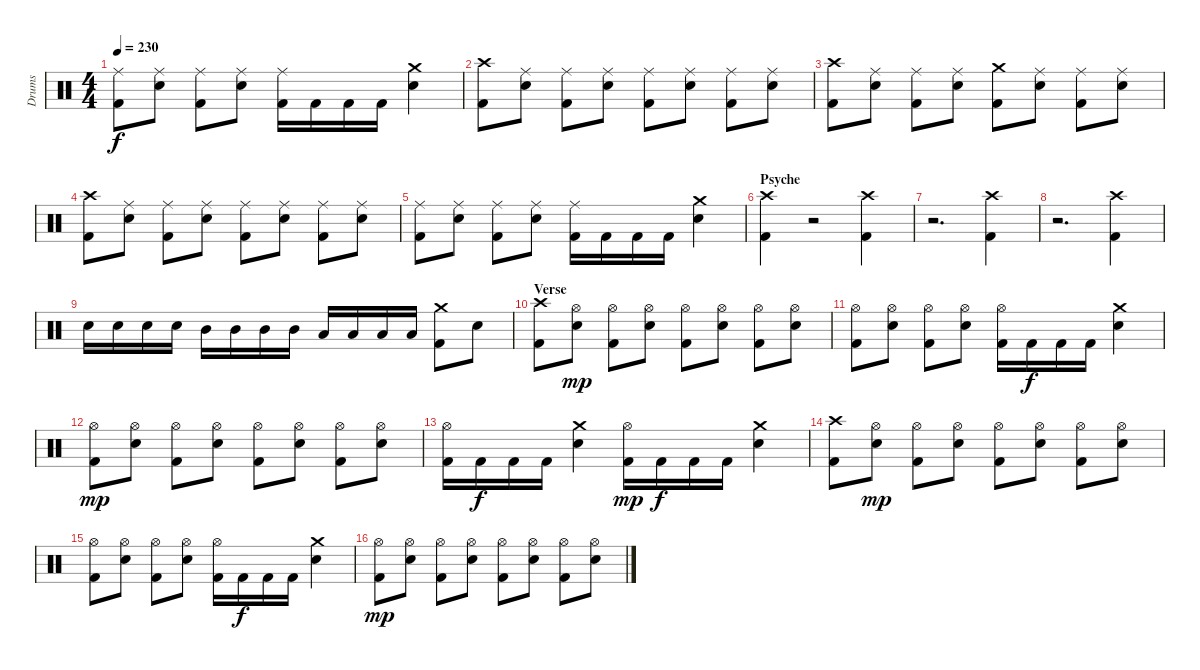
\track ("Drums" "Drums") {instrument percussion}
\staff {score}
\articulation defaults
\ts (4 4)
\tempo 230
\clef neutral
\ks c
("Ride (middle)" "Kick (hit) 2").8{dy f} ("Ride (middle)" "Snare (hit) 2").8 ("Ride (middle)" "Kick (hit) 2").8 ("Ride (middle)" "Snare (hit) 2").8 ("Ride (middle)" "Kick (hit) 2").16 "Kick (hit) 2".16 "Kick (hit) 2".16 "Kick (hit) 2".16 ("Crash medium (hit)" "Snare (hit) 2").4 |
("Crash high (hit)" "Kick (hit) 2").8 ("Ride (middle)" "Snare (hit) 2").8 ("Ride (middle)" "Kick (hit) 2").8 ("Ride (middle)" "Snare (hit) 2").8 ("Ride (middle)" "Kick (hit) 2").8 ("Ride (middle)" "Snare (hit) 2").8 ("Ride (middle)" "Kick (hit) 2").8 ("Ride (middle)" "Snare (hit) 2").8 |
("Crash high (hit)" "Kick (hit) 2").8 ("Ride (middle)" "Snare (hit) 2").8 ("Ride (middle)" "Kick (hit) 2").8 ("Ride (middle)" "Snare (hit) 2").8 ("Crash medium (hit)" "Kick (hit) 2").8 ("Ride (middle)" "Snare (hit) 2").8 ("Ride (middle)" "Kick (hit) 2").8 ("Ride (middle)" "Snare (hit) 2").8 |
("Crash high (hit)" "Kick (hit) 2").8 ("Ride (middle)" "Snare (hit) 2").8 ("Ride (middle)" "Kick (hit) 2").8 ("Ride (middle)" "Snare (hit) 2").8 ("Ride (middle)" "Kick (hit) 2").8 ("Ride (middle)" "Snare (hit) 2").8 ("Ride (middle)" "Kick (hit) 2").8 ("Ride (middle)" "Snare (hit) 2").8 |
("Ride (middle)" "Kick (hit) 2").8 ("Ride (middle)" "Snare (hit) 2").8 ("Ride (middle)" "Kick (hit) 2").8 ("Ride (middle)" "Snare (hit) 2").8 ("Ride (middle)" "Kick (hit) 2").16 "Kick (hit) 2".16 "Kick (hit) 2".16 "Kick (hit) 2".16 ("Crash medium (hit)" "Snare (hit) 2").4 |
\section ("" "Psyche")
("Crash high (hit)" "Kick (hit) 2").4 r.2 ("Crash high (hit)" "Kick (hit) 2").4 |
r.2{d} ("Crash high (hit)" "Kick (hit) 2").4 |
r.2{d} ("Crash high (hit)" "Kick (hit) 2").4 |
"Snare (hit) 2".16 "Snare (hit) 2".16 "Snare (hit) 2".16 "Snare (hit) 2".16 "Mid Tom (hit)".16 "Mid Tom (hit)".16 "Mid Tom (hit)".16 "Mid Tom (hit)".16 "Low Tom (hit)".16 "Low Tom (hit)".16 "Low Tom (hit)".16 "Low Tom (hit)".16 ("Crash medium (hit)" "Kick (hit) 2").8 "Snare (hit) 2".8 |
\section ("" "Verse")
("Crash high (hit)" "Kick (hit) 2").8 ("Hi-Hat (open)" "Snare (hit) 2").8{dy mp} ("Hi-Hat (open)" "Kick (hit) 2").8 ("Hi-Hat (open)" "Snare (hit) 2").8 ("Hi-Hat (open)" "Kick (hit) 2").8 ("Hi-Hat (open)" "Snare (hit) 2").8 ("Hi-Hat (open)" "Kick (hit) 2").8 ("Hi-Hat (open)" "Snare (hit) 2").8 |
("Hi-Hat (open)" "Kick (hit) 2").8 ("Hi-Hat (open)" "Snare (hit) 2").8 ("Hi-Hat (open)" "Kick (hit) 2").8 ("Hi-Hat (open)" "Snare (hit) 2").8 ("Hi-Hat (open)" "Kick (hit) 2").16 "Kick (hit) 2".16{dy f} "Kick (hit) 2".16 "Kick (hit) 2".16 ("Crash medium (hit)" "Snare (hit) 2").4 |
("Hi-Hat (open)" "Kick (hit) 2").8{dy mp} ("Hi-Hat (open)" "Snare (hit) 2").8 ("Hi-Hat (open)" "Kick (hit) 2").8 ("Hi-Hat (open)" "Snare (hit) 2").8 ("Hi-Hat (open)" "Kick (hit) 2").8 ("Hi-Hat (open)" "Snare (hit) 2").8 ("Hi-Hat (open)" "Kick (hit) 2").8 ("Hi-Hat (open)" "Snare (hit) 2").8 |
("Hi-Hat (open)" "Kick (hit) 2").16 "Kick (hit) 2".16{dy f} "Kick (hit) 2".16 "Kick (hit) 2".16 ("Crash medium (hit)" "Snare (hit) 2").4 ("Hi-Hat (open)" "Kick (hit) 2").16{dy mp} "Kick (hit) 2".16{dy f} "Kick (hit) 2".16 "Kick (hit) 2".16 ("Crash medium (hit)" "Snare (hit) 2").4 |
("Crash high (hit)" "Kick (hit) 2").8 ("Hi-Hat (open)" "Snare (hit) 2").8{dy mp} ("Hi-Hat (open)" "Kick (hit) 2").8 ("Hi-Hat (open)" "Snare (hit) 2").8 ("Hi-Hat (open)" "Kick (hit) 2").8 ("Hi-Hat (open)" "Snare (hit) 2").8 ("Hi-Hat (open)" "Kick (hit) 2").8 ("Hi-Hat (open)" "Snare (hit) 2").8 |
("Hi-Hat (open)" "Kick (hit) 2").8 ("Hi-Hat (open)" "Snare (hit) 2").8 ("Hi-Hat (open)" "Kick (hit) 2").8 ("Hi-Hat (open)" "Snare (hit) 2").8 ("Hi-Hat (open)" "Kick (hit) 2").16 "Kick (hit) 2".16{dy f} "Kick (hit) 2".16 "Kick (hit) 2".16 ("Crash medium (hit)" "Snare (hit) 2").4 |
("Hi-Hat (open)" "Kick (hit) 2").8{dy mp} ("Hi-Hat (open)" "Snare (hit) 2").8 ("Hi-Hat (open)" "Kick (hit) 2").8 ("Hi-Hat (open)" "Snare (hit) 2").8 ("Hi-Hat (open)" "Kick (hit) 2").8 ("Hi-Hat (open)" "Snare (hit) 2").8 ("Hi-Hat (open)" "Kick (hit) 2").8 ("Hi-Hat (open)" "Snare (hit) 2").8
